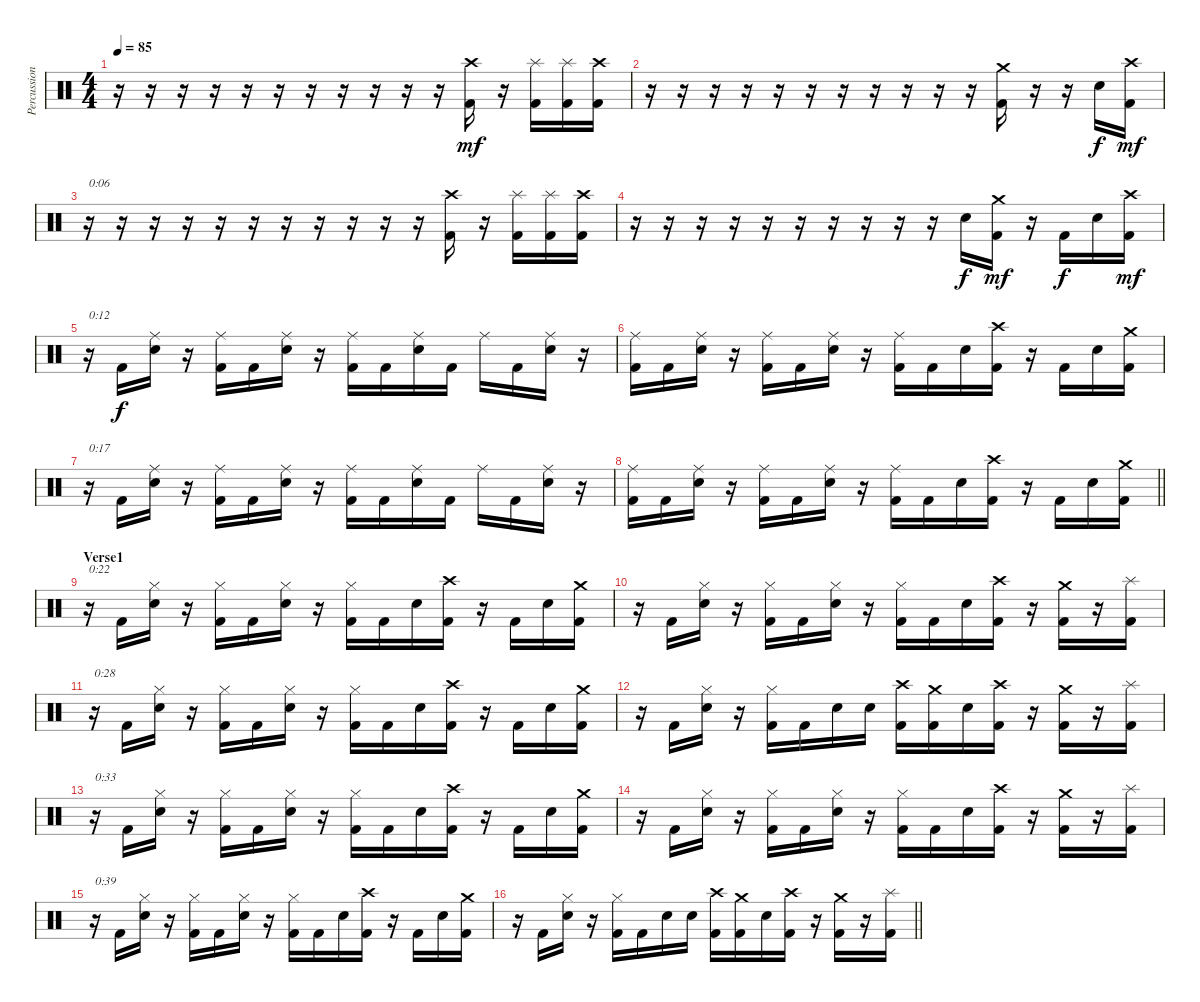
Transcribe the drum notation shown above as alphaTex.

\track ("Percussion" "Percussion") {instrument percussion}
\staff {score}
\articulation defaults
\ts (4 4)
\tempo 85
\clef neutral
\ks c
r.16{dy mf} r.16 r.16 r.16 r.16 r.16 r.16 r.16 r.16 r.16 r.16 ("Crash high (hit)" "Kick (hit) 2").16 r.16 ("Splash (hit)" "Kick (hit) 2").16 ("Splash (hit)" "Kick (hit) 2").16 ("Crash high (hit)" "Kick (hit) 2").16 |
r.16 r.16 r.16 r.16 r.16 r.16 r.16 r.16 r.16 r.16 r.16 ("Crash medium (hit)" "Kick (hit) 2").16 r.16 r.16 "Snare (hit) 2".16{dy f} ("Crash high (hit)" "Kick (hit) 2").16{dy mf} |
r.16{txt "0:06"} r.16 r.16 r.16 r.16 r.16 r.16 r.16 r.16 r.16 r.16 ("Crash high (hit)" "Kick (hit) 2").16 r.16 ("Splash (hit)" "Kick (hit) 2").16 ("Splash (hit)" "Kick (hit) 2").16 ("Crash high (hit)" "Kick (hit) 2").16 |
r.16 r.16 r.16 r.16 r.16 r.16 r.16 r.16 r.16 r.16 "Snare (hit) 2".16{dy f} ("Crash medium (hit)" "Kick (hit) 2").16{dy mf} r.16 "Kick (hit) 2".16{dy f} "Snare (hit) 2".16 ("Crash high (hit)" "Kick (hit) 2").16{dy mf} |
r.16{txt "0:12"} "Kick (hit) 2".16{dy f} ("Ride (middle)" "Snare (hit) 2").16 r.16 ("Ride (middle)" "Kick (hit) 2").16 "Kick (hit) 2".16 ("Ride (middle)" "Snare (hit) 2").16 r.16 ("Ride (middle)" "Kick (hit) 2").16 "Kick (hit) 2".16 ("Ride (middle)" "Snare (hit) 2").16 "Kick (hit) 2".16 "Ride (middle)".16 "Kick (hit) 2".16 ("Ride (middle)" "Snare (hit) 2").16 r.16 |
("Ride (middle)" "Kick (hit) 2").16 "Kick (hit) 2".16 ("Ride (middle)" "Snare (hit) 2").16 r.16 ("Ride (middle)" "Kick (hit) 2").16 "Kick (hit) 2".16 ("Ride (middle)" "Snare (hit) 2").16 r.16 ("Ride (middle)" "Kick (hit) 2").16 "Kick (hit) 2".16 "Snare (hit) 2".16 ("Crash high (hit)" "Kick (hit) 2").16 r.16 "Kick (hit) 2".16 "Snare (hit) 2".16 ("Crash medium (hit)" "Kick (hit) 2").16 |
r.16{txt "0:17"} "Kick (hit) 2".16 ("Ride (middle)" "Snare (hit) 2").16 r.16 ("Ride (middle)" "Kick (hit) 2").16 "Kick (hit) 2".16 ("Ride (middle)" "Snare (hit) 2").16 r.16 ("Ride (middle)" "Kick (hit) 2").16 "Kick (hit) 2".16 ("Ride (middle)" "Snare (hit) 2").16 "Kick (hit) 2".16 "Ride (middle)".16 "Kick (hit) 2".16 ("Ride (middle)" "Snare (hit) 2").16 r.16 |
\barLineRight lightlight
("Ride (middle)" "Kick (hit) 2").16 "Kick (hit) 2".16 ("Ride (middle)" "Snare (hit) 2").16 r.16 ("Ride (middle)" "Kick (hit) 2").16 "Kick (hit) 2".16 ("Ride (middle)" "Snare (hit) 2").16 r.16 ("Ride (middle)" "Kick (hit) 2").16 "Kick (hit) 2".16 "Snare (hit) 2".16 ("Crash high (hit)" "Kick (hit) 2").16 r.16 "Kick (hit) 2".16 "Snare (hit) 2".16 ("Crash medium (hit)" "Kick (hit) 2").16 |
\section ("" "Verse1")
r.16{txt "0:22"} "Kick (hit) 2".16 ("Hi-Hat (closed)" "Snare (hit) 2").16 r.16 ("Hi-Hat (closed)" "Kick (hit) 2").16 "Kick (hit) 2".16 ("Hi-Hat (closed)" "Snare (hit) 2").16 r.16 ("Hi-Hat (closed)" "Kick (hit) 2").16 "Kick (hit) 2".16 "Snare (hit) 2".16 ("Crash high (hit)" "Kick (hit) 2").16 r.16 "Kick (hit) 2".16 "Snare (hit) 2".16 ("Crash medium (hit)" "Kick (hit) 2").16 |
r.16 "Kick (hit) 2".16 ("Hi-Hat (closed)" "Snare (hit) 2").16 r.16 ("Hi-Hat (closed)" "Kick (hit) 2").16 "Kick (hit) 2".16 ("Hi-Hat (closed)" "Snare (hit) 2").16 r.16 ("Hi-Hat (closed)" "Kick (hit) 2").16 "Kick (hit) 2".16 "Snare (hit) 2".16 ("Crash high (hit)" "Kick (hit) 2").16 r.16 ("Crash medium (hit)" "Kick (hit) 2").16 r.16 ("Splash (hit)" "Kick (hit) 2").16 |
r.16{txt "0:28"} "Kick (hit) 2".16 ("Hi-Hat (closed)" "Snare (hit) 2").16 r.16 ("Hi-Hat (closed)" "Kick (hit) 2").16 "Kick (hit) 2".16 ("Hi-Hat (closed)" "Snare (hit) 2").16 r.16 ("Hi-Hat (closed)" "Kick (hit) 2").16 "Kick (hit) 2".16 "Snare (hit) 2".16 ("Crash high (hit)" "Kick (hit) 2").16 r.16 "Kick (hit) 2".16 "Snare (hit) 2".16 ("Crash medium (hit)" "Kick (hit) 2").16 |
r.16 "Kick (hit) 2".16 ("Hi-Hat (closed)" "Snare (hit) 2").16 r.16 ("Hi-Hat (closed)" "Kick (hit) 2").16 "Kick (hit) 2".16 "Snare (hit) 2".16 "Snare (hit) 2".16 ("Crash high (hit)" "Kick (hit) 2").16 ("Crash medium (hit)" "Kick (hit) 2").16 "Snare (hit) 2".16 ("Crash high (hit)" "Kick (hit) 2").16 r.16 ("Crash medium (hit)" "Kick (hit) 2").16 r.16 ("Splash (hit)" "Kick (hit) 2").16 |
r.16{txt "0:33"} "Kick (hit) 2".16 ("Hi-Hat (closed)" "Snare (hit) 2").16 r.16 ("Hi-Hat (closed)" "Kick (hit) 2").16 "Kick (hit) 2".16 ("Hi-Hat (closed)" "Snare (hit) 2").16 r.16 ("Hi-Hat (closed)" "Kick (hit) 2").16 "Kick (hit) 2".16 "Snare (hit) 2".16 ("Crash high (hit)" "Kick (hit) 2").16 r.16 "Kick (hit) 2".16 "Snare (hit) 2".16 ("Crash medium (hit)" "Kick (hit) 2").16 |
r.16 "Kick (hit) 2".16 ("Hi-Hat (closed)" "Snare (hit) 2").16 r.16 ("Hi-Hat (closed)" "Kick (hit) 2").16 "Kick (hit) 2".16 ("Hi-Hat (closed)" "Snare (hit) 2").16 r.16 ("Hi-Hat (closed)" "Kick (hit) 2").16 "Kick (hit) 2".16 "Snare (hit) 2".16 ("Crash high (hit)" "Kick (hit) 2").16 r.16 ("Crash medium (hit)" "Kick (hit) 2").16 r.16 ("Splash (hit)" "Kick (hit) 2").16 |
r.16{txt "0:39"} "Kick (hit) 2".16 ("Hi-Hat (closed)" "Snare (hit) 2").16 r.16 ("Hi-Hat (closed)" "Kick (hit) 2").16 "Kick (hit) 2".16 ("Hi-Hat (closed)" "Snare (hit) 2").16 r.16 ("Hi-Hat (closed)" "Kick (hit) 2").16 "Kick (hit) 2".16 "Snare (hit) 2".16 ("Crash high (hit)" "Kick (hit) 2").16 r.16 "Kick (hit) 2".16 "Snare (hit) 2".16 ("Crash medium (hit)" "Kick (hit) 2").16 |
\barLineRight lightlight
r.16 "Kick (hit) 2".16 ("Hi-Hat (closed)" "Snare (hit) 2").16 r.16 ("Hi-Hat (closed)" "Kick (hit) 2").16 "Kick (hit) 2".16 "Snare (hit) 2".16 "Snare (hit) 2".16 ("Crash high (hit)" "Kick (hit) 2").16 ("Crash medium (hit)" "Kick (hit) 2").16 "Snare (hit) 2".16 ("Crash high (hit)" "Kick (hit) 2").16 r.16 ("Crash medium (hit)" "Kick (hit) 2").16 r.16 ("Splash (hit)" "Kick (hit) 2").16
